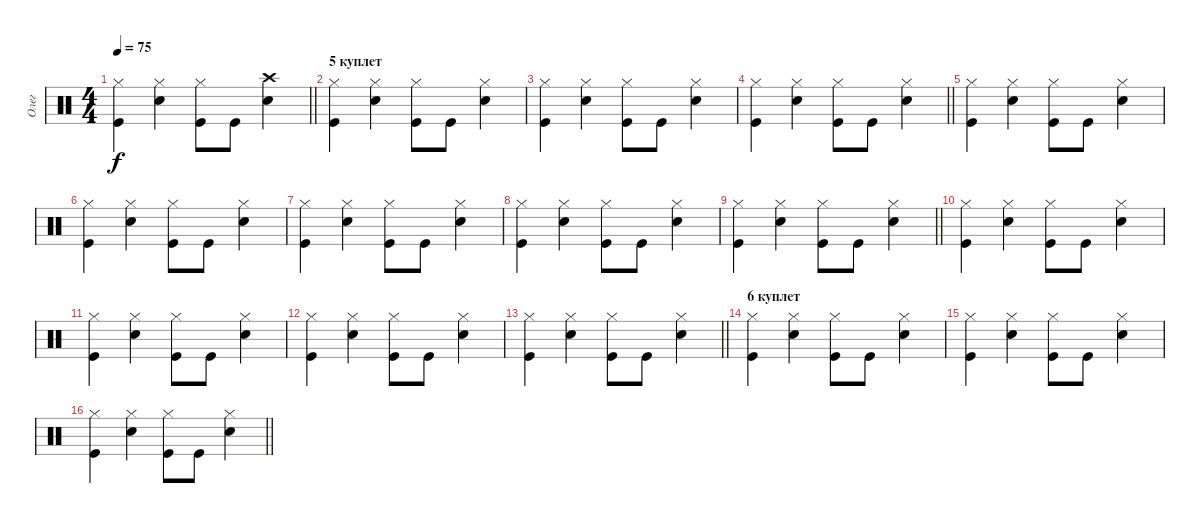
\track ("Олег" "Олег") {instrument percussion}
\staff {score}
\articulation defaults
\ts (4 4)
\tempo 75
\clef neutral
\barLineRight lightlight
\ks c
("Hi-Hat (closed)" "Kick (hit)").4{dy f} ("Hi-Hat (closed)" "Snare (hit) 2").4 ("Hi-Hat (closed)" "Kick (hit)").8 "Kick (hit)".8 ("Crash high (hit)" "Snare (hit) 2").4 |
\section ("" "5 куплет")
("Hi-Hat (closed)" "Kick (hit)").4 ("Hi-Hat (closed)" "Snare (hit) 2").4 ("Hi-Hat (closed)" "Kick (hit)").8 "Kick (hit)".8 ("Hi-Hat (closed)" "Snare (hit) 2").4 |
("Hi-Hat (closed)" "Kick (hit)").4 ("Hi-Hat (closed)" "Snare (hit) 2").4 ("Hi-Hat (closed)" "Kick (hit)").8 "Kick (hit)".8 ("Hi-Hat (closed)" "Snare (hit) 2").4 |
\barLineRight lightlight
("Hi-Hat (closed)" "Kick (hit)").4 ("Hi-Hat (closed)" "Snare (hit) 2").4 ("Hi-Hat (closed)" "Kick (hit)").8 "Kick (hit)".8 ("Hi-Hat (closed)" "Snare (hit) 2").4 |
("Hi-Hat (closed)" "Kick (hit)").4 ("Hi-Hat (closed)" "Snare (hit) 2").4 ("Hi-Hat (closed)" "Kick (hit)").8 "Kick (hit)".8 ("Hi-Hat (closed)" "Snare (hit) 2").4 |
("Hi-Hat (closed)" "Kick (hit)").4 ("Hi-Hat (closed)" "Snare (hit) 2").4 ("Hi-Hat (closed)" "Kick (hit)").8 "Kick (hit)".8 ("Hi-Hat (closed)" "Snare (hit) 2").4 |
("Hi-Hat (closed)" "Kick (hit)").4 ("Hi-Hat (closed)" "Snare (hit) 2").4 ("Hi-Hat (closed)" "Kick (hit)").8 "Kick (hit)".8 ("Hi-Hat (closed)" "Snare (hit) 2").4 |
("Hi-Hat (closed)" "Kick (hit)").4 ("Hi-Hat (closed)" "Snare (hit) 2").4 ("Hi-Hat (closed)" "Kick (hit)").8 "Kick (hit)".8 ("Hi-Hat (closed)" "Snare (hit) 2").4 |
\barLineRight lightlight
("Hi-Hat (closed)" "Kick (hit)").4 ("Hi-Hat (closed)" "Snare (hit) 2").4 ("Hi-Hat (closed)" "Kick (hit)").8 "Kick (hit)".8 ("Hi-Hat (closed)" "Snare (hit) 2").4 |
("Hi-Hat (closed)" "Kick (hit)").4 ("Hi-Hat (closed)" "Snare (hit) 2").4 ("Hi-Hat (closed)" "Kick (hit)").8 "Kick (hit)".8 ("Hi-Hat (closed)" "Snare (hit) 2").4 |
("Hi-Hat (closed)" "Kick (hit)").4 ("Hi-Hat (closed)" "Snare (hit) 2").4 ("Hi-Hat (closed)" "Kick (hit)").8 "Kick (hit)".8 ("Hi-Hat (closed)" "Snare (hit) 2").4 |
("Hi-Hat (closed)" "Kick (hit)").4 ("Hi-Hat (closed)" "Snare (hit) 2").4 ("Hi-Hat (closed)" "Kick (hit)").8 "Kick (hit)".8 ("Hi-Hat (closed)" "Snare (hit) 2").4 |
\barLineRight lightlight
("Hi-Hat (closed)" "Kick (hit)").4 ("Hi-Hat (closed)" "Snare (hit) 2").4 ("Hi-Hat (closed)" "Kick (hit)").8 "Kick (hit)".8 ("Hi-Hat (closed)" "Snare (hit) 2").4 |
\section ("" "6 куплет")
("Hi-Hat (closed)" "Kick (hit)").4 ("Hi-Hat (closed)" "Snare (hit) 2").4 ("Hi-Hat (closed)" "Kick (hit)").8 "Kick (hit)".8 ("Hi-Hat (closed)" "Snare (hit) 2").4 |
("Hi-Hat (closed)" "Kick (hit)").4 ("Hi-Hat (closed)" "Snare (hit) 2").4 ("Hi-Hat (closed)" "Kick (hit)").8 "Kick (hit)".8 ("Hi-Hat (closed)" "Snare (hit) 2").4 |
\barLineRight lightlight
("Hi-Hat (closed)" "Kick (hit)").4 ("Hi-Hat (closed)" "Snare (hit) 2").4 ("Hi-Hat (closed)" "Kick (hit)").8 "Kick (hit)".8 ("Hi-Hat (closed)" "Snare (hit) 2").4
